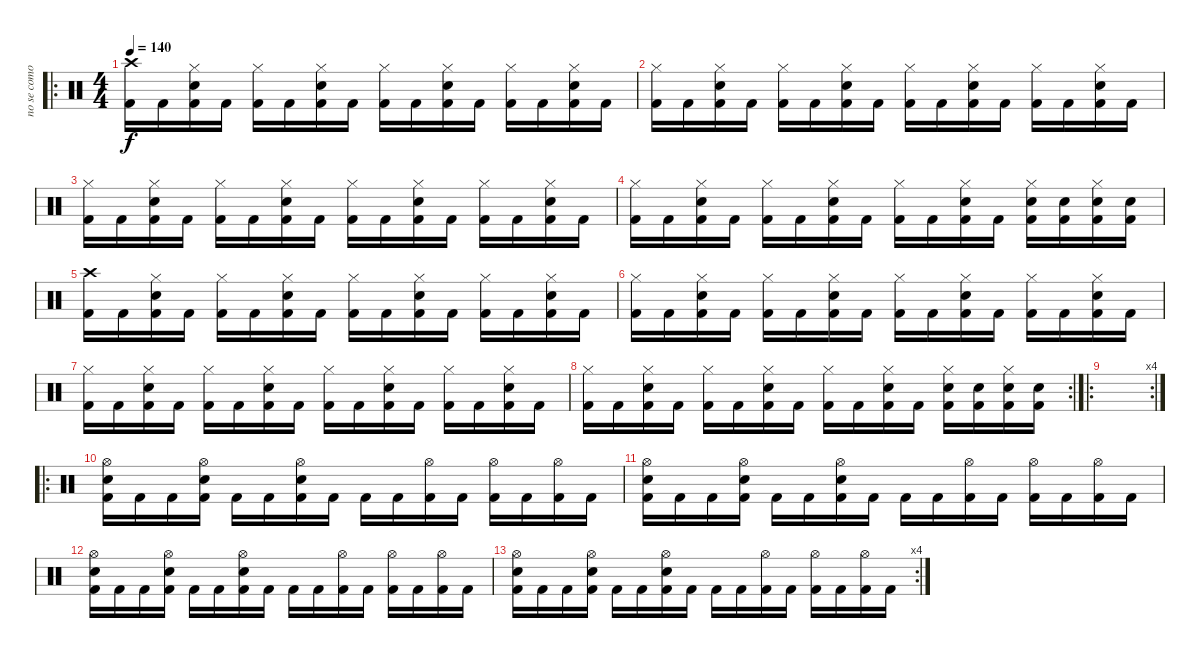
\track ("no se como se llama" "no se como") {instrument percussion}
\staff {score}
\articulation defaults
\ro
\ts (4 4)
\tempo 140
\clef neutral
\ks c
("Kick (hit) 2" "Crash high (hit)").16{dy f} "Kick (hit) 2".16 ("Kick (hit) 2" "Electric Snare (hit)" "Hi-Hat (closed)").16 "Kick (hit) 2".16 ("Kick (hit) 2" "Hi-Hat (closed)").16 "Kick (hit) 2".16 ("Kick (hit) 2" "Electric Snare (hit)" "Hi-Hat (closed)").16 "Kick (hit) 2".16 ("Kick (hit) 2" "Hi-Hat (closed)").16 "Kick (hit) 2".16 ("Kick (hit) 2" "Electric Snare (hit)" "Hi-Hat (closed)").16 "Kick (hit) 2".16 ("Kick (hit) 2" "Hi-Hat (closed)").16 "Kick (hit) 2".16 ("Kick (hit) 2" "Electric Snare (hit)" "Hi-Hat (closed)").16 "Kick (hit) 2".16 |
("Kick (hit) 2" "Hi-Hat (closed)").16 "Kick (hit) 2".16 ("Kick (hit) 2" "Electric Snare (hit)" "Hi-Hat (closed)").16 "Kick (hit) 2".16 ("Kick (hit) 2" "Hi-Hat (closed)").16 "Kick (hit) 2".16 ("Kick (hit) 2" "Electric Snare (hit)" "Hi-Hat (closed)").16 "Kick (hit) 2".16 ("Kick (hit) 2" "Hi-Hat (closed)").16 "Kick (hit) 2".16 ("Kick (hit) 2" "Electric Snare (hit)" "Hi-Hat (closed)").16 "Kick (hit) 2".16 ("Kick (hit) 2" "Hi-Hat (closed)").16 "Kick (hit) 2".16 ("Kick (hit) 2" "Electric Snare (hit)" "Hi-Hat (closed)").16 "Kick (hit) 2".16 |
("Kick (hit) 2" "Hi-Hat (closed)").16 "Kick (hit) 2".16 ("Kick (hit) 2" "Electric Snare (hit)" "Hi-Hat (closed)").16 "Kick (hit) 2".16 ("Kick (hit) 2" "Hi-Hat (closed)").16 "Kick (hit) 2".16 ("Kick (hit) 2" "Electric Snare (hit)" "Hi-Hat (closed)").16 "Kick (hit) 2".16 ("Kick (hit) 2" "Hi-Hat (closed)").16 "Kick (hit) 2".16 ("Kick (hit) 2" "Electric Snare (hit)" "Hi-Hat (closed)").16 "Kick (hit) 2".16 ("Kick (hit) 2" "Hi-Hat (closed)").16 "Kick (hit) 2".16 ("Kick (hit) 2" "Electric Snare (hit)" "Hi-Hat (closed)").16 "Kick (hit) 2".16 |
("Kick (hit) 2" "Hi-Hat (closed)").16 "Kick (hit) 2".16 ("Kick (hit) 2" "Electric Snare (hit)" "Hi-Hat (closed)").16 "Kick (hit) 2".16 ("Kick (hit) 2" "Hi-Hat (closed)").16 "Kick (hit) 2".16 ("Kick (hit) 2" "Electric Snare (hit)" "Hi-Hat (closed)").16 "Kick (hit) 2".16 ("Kick (hit) 2" "Hi-Hat (closed)").16 "Kick (hit) 2".16 ("Kick (hit) 2" "Electric Snare (hit)" "Hi-Hat (closed)").16 "Kick (hit) 2".16 ("Kick (hit) 2" "Electric Snare (hit)" "Hi-Hat (closed)").16 ("Kick (hit) 2" "Electric Snare (hit)").16 ("Kick (hit) 2" "Electric Snare (hit)" "Hi-Hat (closed)").16 ("Kick (hit) 2" "Electric Snare (hit)").16 |
("Kick (hit) 2" "Crash high (hit)").16 "Kick (hit) 2".16 ("Kick (hit) 2" "Electric Snare (hit)" "Hi-Hat (closed)").16 "Kick (hit) 2".16 ("Kick (hit) 2" "Hi-Hat (closed)").16 "Kick (hit) 2".16 ("Kick (hit) 2" "Electric Snare (hit)" "Hi-Hat (closed)").16 "Kick (hit) 2".16 ("Kick (hit) 2" "Hi-Hat (closed)").16 "Kick (hit) 2".16 ("Kick (hit) 2" "Electric Snare (hit)" "Hi-Hat (closed)").16 "Kick (hit) 2".16 ("Kick (hit) 2" "Hi-Hat (closed)").16 "Kick (hit) 2".16 ("Kick (hit) 2" "Electric Snare (hit)" "Hi-Hat (closed)").16 "Kick (hit) 2".16 |
("Kick (hit) 2" "Hi-Hat (closed)").16 "Kick (hit) 2".16 ("Kick (hit) 2" "Electric Snare (hit)" "Hi-Hat (closed)").16 "Kick (hit) 2".16 ("Kick (hit) 2" "Hi-Hat (closed)").16 "Kick (hit) 2".16 ("Kick (hit) 2" "Electric Snare (hit)" "Hi-Hat (closed)").16 "Kick (hit) 2".16 ("Kick (hit) 2" "Hi-Hat (closed)").16 "Kick (hit) 2".16 ("Kick (hit) 2" "Electric Snare (hit)" "Hi-Hat (closed)").16 "Kick (hit) 2".16 ("Kick (hit) 2" "Hi-Hat (closed)").16 "Kick (hit) 2".16 ("Kick (hit) 2" "Electric Snare (hit)" "Hi-Hat (closed)").16 "Kick (hit) 2".16 |
("Kick (hit) 2" "Hi-Hat (closed)").16 "Kick (hit) 2".16 ("Kick (hit) 2" "Electric Snare (hit)" "Hi-Hat (closed)").16 "Kick (hit) 2".16 ("Kick (hit) 2" "Hi-Hat (closed)").16 "Kick (hit) 2".16 ("Kick (hit) 2" "Electric Snare (hit)" "Hi-Hat (closed)").16 "Kick (hit) 2".16 ("Kick (hit) 2" "Hi-Hat (closed)").16 "Kick (hit) 2".16 ("Kick (hit) 2" "Electric Snare (hit)" "Hi-Hat (closed)").16 "Kick (hit) 2".16 ("Kick (hit) 2" "Hi-Hat (closed)").16 "Kick (hit) 2".16 ("Kick (hit) 2" "Electric Snare (hit)" "Hi-Hat (closed)").16 "Kick (hit) 2".16 |
\rc 2
("Kick (hit) 2" "Hi-Hat (closed)").16 "Kick (hit) 2".16 ("Kick (hit) 2" "Electric Snare (hit)" "Hi-Hat (closed)").16 "Kick (hit) 2".16 ("Kick (hit) 2" "Hi-Hat (closed)").16 "Kick (hit) 2".16 ("Kick (hit) 2" "Electric Snare (hit)" "Hi-Hat (closed)").16 "Kick (hit) 2".16 ("Kick (hit) 2" "Hi-Hat (closed)").16 "Kick (hit) 2".16 ("Kick (hit) 2" "Electric Snare (hit)" "Hi-Hat (closed)").16 "Kick (hit) 2".16 ("Kick (hit) 2" "Electric Snare (hit)" "Hi-Hat (closed)").16 ("Kick (hit) 2" "Electric Snare (hit)").16 ("Kick (hit) 2" "Electric Snare (hit)" "Hi-Hat (closed)").16 ("Kick (hit) 2" "Electric Snare (hit)").16 |
\ro
\rc 4
|
\ro
("Kick (hit) 2" "Electric Snare (hit)" "Hi-Hat (open)").16 "Kick (hit) 2".16 "Kick (hit) 2".16 ("Kick (hit) 2" "Electric Snare (hit)" "Hi-Hat (open)").16 "Kick (hit) 2".16 "Kick (hit) 2".16 ("Kick (hit) 2" "Electric Snare (hit)" "Hi-Hat (open)").16 "Kick (hit) 2".16 "Kick (hit) 2".16 "Kick (hit) 2".16 ("Kick (hit) 2" "Hi-Hat (open)").16 "Kick (hit) 2".16 ("Kick (hit) 2" "Hi-Hat (open)").16 "Kick (hit) 2".16 ("Kick (hit) 2" "Hi-Hat (open)").16 "Kick (hit) 2".16 |
("Kick (hit) 2" "Electric Snare (hit)" "Hi-Hat (open)").16 "Kick (hit) 2".16 "Kick (hit) 2".16 ("Kick (hit) 2" "Electric Snare (hit)" "Hi-Hat (open)").16 "Kick (hit) 2".16 "Kick (hit) 2".16 ("Kick (hit) 2" "Electric Snare (hit)" "Hi-Hat (open)").16 "Kick (hit) 2".16 "Kick (hit) 2".16 "Kick (hit) 2".16 ("Kick (hit) 2" "Hi-Hat (open)").16 "Kick (hit) 2".16 ("Kick (hit) 2" "Hi-Hat (open)").16 "Kick (hit) 2".16 ("Kick (hit) 2" "Hi-Hat (open)").16 "Kick (hit) 2".16 |
("Kick (hit) 2" "Electric Snare (hit)" "Hi-Hat (open)").16 "Kick (hit) 2".16 "Kick (hit) 2".16 ("Kick (hit) 2" "Electric Snare (hit)" "Hi-Hat (open)").16 "Kick (hit) 2".16 "Kick (hit) 2".16 ("Kick (hit) 2" "Electric Snare (hit)" "Hi-Hat (open)").16 "Kick (hit) 2".16 "Kick (hit) 2".16 "Kick (hit) 2".16 ("Kick (hit) 2" "Hi-Hat (open)").16 "Kick (hit) 2".16 ("Kick (hit) 2" "Hi-Hat (open)").16 "Kick (hit) 2".16 ("Kick (hit) 2" "Hi-Hat (open)").16 "Kick (hit) 2".16 |
\rc 4
("Kick (hit) 2" "Electric Snare (hit)" "Hi-Hat (open)").16 "Kick (hit) 2".16 "Kick (hit) 2".16 ("Kick (hit) 2" "Electric Snare (hit)" "Hi-Hat (open)").16 "Kick (hit) 2".16 "Kick (hit) 2".16 ("Kick (hit) 2" "Electric Snare (hit)" "Hi-Hat (open)").16 "Kick (hit) 2".16 "Kick (hit) 2".16 "Kick (hit) 2".16 ("Kick (hit) 2" "Hi-Hat (open)").16 "Kick (hit) 2".16 ("Kick (hit) 2" "Hi-Hat (open)").16 "Kick (hit) 2".16 ("Kick (hit) 2" "Hi-Hat (open)").16 "Kick (hit) 2".16
